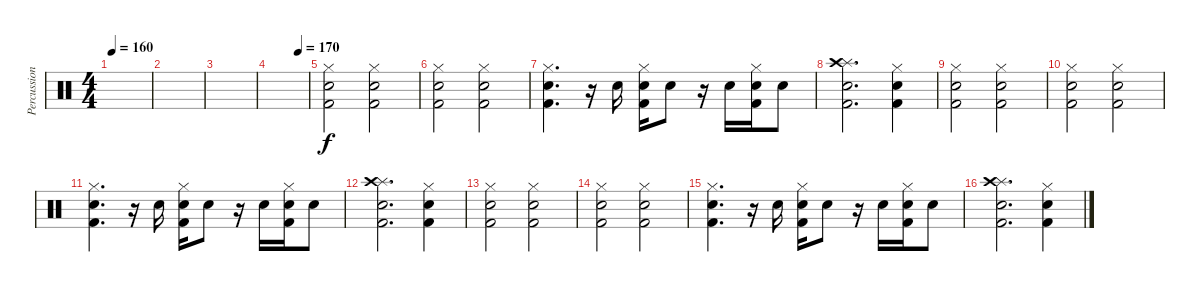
\track ("Percussion" "Percussion") {instrument percussion}
\staff {score}
\articulation defaults
\ts (4 4)
\tempo 160
\clef neutral
\ks c
|
|
|
\tempo (170 0.75)
|
("Hi-Hat (closed)" "Snare (hit) 2" "Kick (hit) 2").2 ("Hi-Hat (closed)" "Snare (hit) 2" "Kick (hit) 2").2 |
("Hi-Hat (closed)" "Snare (hit) 2" "Kick (hit) 2").2 ("Hi-Hat (closed)" "Snare (hit) 2" "Kick (hit) 2").2 |
("Hi-Hat (closed)" "Snare (hit) 2" "Kick (hit) 2").4{d} r.16 "Snare (hit) 2".16 ("Hi-Hat (closed)" "Snare (hit) 2" "Kick (hit) 2").16 "Snare (hit) 2".8 r.16 "Snare (hit) 2".16 ("Hi-Hat (closed)" "Snare (hit) 2" "Kick (hit) 2").16 "Snare (hit) 2".8 |
("Splash (hit)" "Crash high (hit)" "Snare (hit) 2" "Kick (hit) 2").2{d} ("Hi-Hat (closed)" "Snare (hit) 2" "Kick (hit) 2").4 |
("Hi-Hat (closed)" "Snare (hit) 2" "Kick (hit) 2").2 ("Hi-Hat (closed)" "Snare (hit) 2" "Kick (hit) 2").2 |
("Hi-Hat (closed)" "Snare (hit) 2" "Kick (hit) 2").2 ("Hi-Hat (closed)" "Snare (hit) 2" "Kick (hit) 2").2 |
("Hi-Hat (closed)" "Snare (hit) 2" "Kick (hit) 2").4{d} r.16 "Snare (hit) 2".16 ("Hi-Hat (closed)" "Snare (hit) 2" "Kick (hit) 2").16 "Snare (hit) 2".8 r.16 "Snare (hit) 2".16 ("Hi-Hat (closed)" "Snare (hit) 2" "Kick (hit) 2").16 "Snare (hit) 2".8 |
("Splash (hit)" "Crash high (hit)" "Snare (hit) 2" "Kick (hit) 2").2{d} ("Hi-Hat (closed)" "Snare (hit) 2" "Kick (hit) 2").4 |
("Hi-Hat (closed)" "Snare (hit) 2" "Kick (hit) 2").2 ("Hi-Hat (closed)" "Snare (hit) 2" "Kick (hit) 2").2 |
("Hi-Hat (closed)" "Snare (hit) 2" "Kick (hit) 2").2 ("Hi-Hat (closed)" "Snare (hit) 2" "Kick (hit) 2").2 |
("Hi-Hat (closed)" "Snare (hit) 2" "Kick (hit) 2").4{d} r.16 "Snare (hit) 2".16 ("Hi-Hat (closed)" "Snare (hit) 2" "Kick (hit) 2").16 "Snare (hit) 2".8 r.16 "Snare (hit) 2".16 ("Hi-Hat (closed)" "Snare (hit) 2" "Kick (hit) 2").16 "Snare (hit) 2".8 |
("Splash (hit)" "Crash high (hit)" "Snare (hit) 2" "Kick (hit) 2").2{d} ("Hi-Hat (closed)" "Snare (hit) 2" "Kick (hit) 2").4
